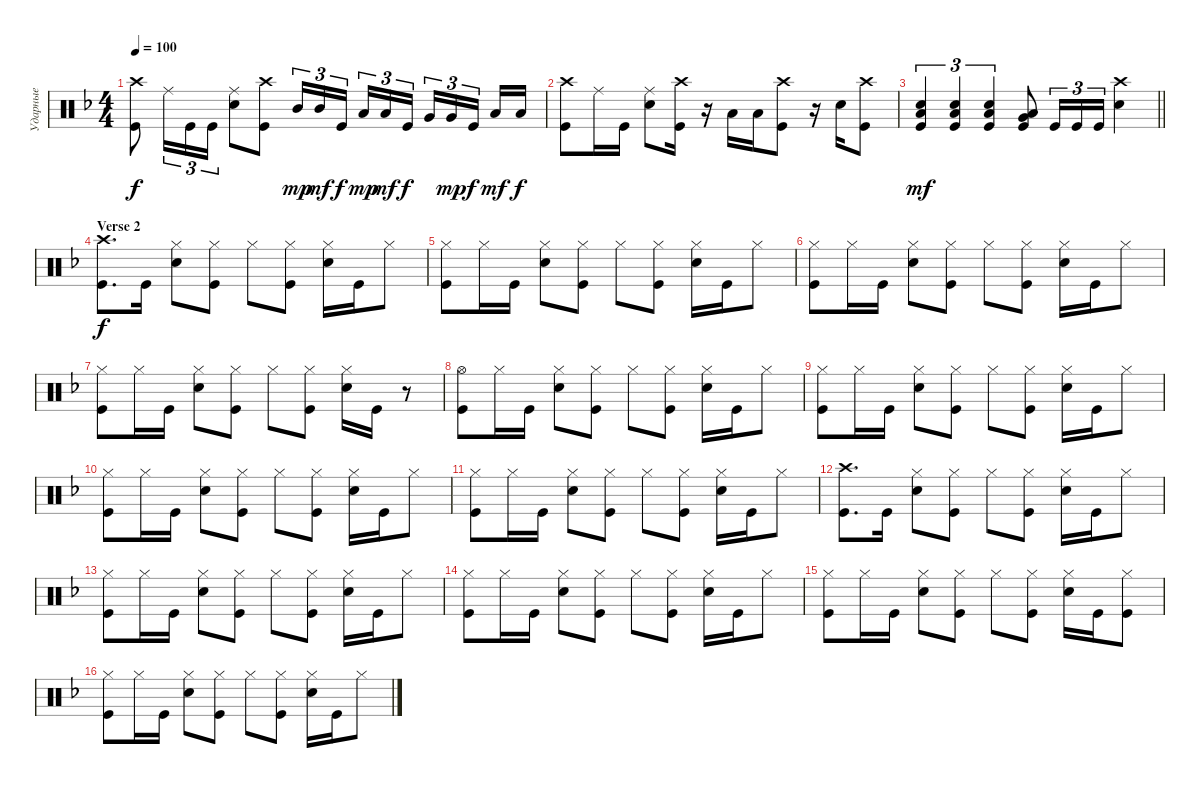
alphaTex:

\track ("Ударные" "Ударные") {instrument percussion}
\staff {score}
\articulation defaults
\ts (4 4)
\tempo 100
\clef neutral
\ks dminor
("Kick (hit)" "Crash high (hit)").8{dy f} "Ride (middle)".16{tu (3 2)} "Kick (hit)".16{tu (3 2)} "Kick (hit)".16{tu (3 2)} ("Snare (hit) 2" "Ride (middle)").8 ("Kick (hit)" "Crash high (hit)").8 "Mid Tom (hit)".16{tu (3 2) dy mp} "Mid Tom (hit)".16{tu (3 2) dy mf} "Kick (hit)".16{tu (3 2) dy f beam splitsecondary} "Low Tom (hit)".16{tu (3 2) dy mp} "Low Tom (hit)".16{tu (3 2) dy mf} "Kick (hit)".16{tu (3 2) dy f} "Very Low Tom (hit)".16{tu (3 2)} "Very Low Tom (hit)".16{tu (3 2) dy mp} "Kick (hit)".16{tu (3 2) dy f beam splitsecondary} "Low Floor Tom (hit)".16{dy mf} "Low Floor Tom (hit)".16{dy f} |
("Kick (hit)" "Crash high (hit)").8 "Ride (middle)".16 "Kick (hit)".16 ("Snare (hit) 2" "Ride (middle)").8 ("Kick (hit)" "Crash high (hit)").16 r.16 "Low Tom (hit)".16 "Low Tom (hit)".16 ("Kick (hit)" "Crash high (hit)").8 r.16 "Snare (hit) 2".16 ("Kick (hit)" "Crash high (hit)").8 |
\barLineRight lightlight
("Kick (hit)" "Snare (hit) 2" "Low Tom (hit)").4{tu (3 2) bd 120 dy mf} ("Kick (hit)" "Low Tom (hit)" "Snare (hit) 2").4{tu (3 2) bd 60} ("Kick (hit)" "Low Tom (hit)" "Snare (hit) 2").4{tu (3 2) bd 120} ("Kick (hit)" "Low Tom (hit)" "Very Low Tom (hit)").8{bd 60} "Kick (hit)".16{tu (3 2)} "Kick (hit)".16{tu (3 2)} "Kick (hit)".16{tu (3 2)} ("Snare (hit) 2" "Crash high (hit)").4 |
\section ("" "Verse 2")
("Kick (hit)" "Crash high (hit)").8{d dy f} "Kick (hit)".16 ("Snare (hit) 2" "Hi-Hat (closed)").8 ("Kick (hit)" "Hi-Hat (closed)").8 "Hi-Hat (closed)".8 ("Hi-Hat (closed)" "Kick (hit)").8 ("Snare (hit) 2" "Hi-Hat (closed)").16 "Kick (hit)".16 "Hi-Hat (closed)".8 |
("Kick (hit)" "Hi-Hat (closed)").8 "Hi-Hat (closed)".16 "Kick (hit)".16 ("Snare (hit) 2" "Hi-Hat (closed)").8 ("Kick (hit)" "Hi-Hat (closed)").8 "Hi-Hat (closed)".8 ("Hi-Hat (closed)" "Kick (hit)").8 ("Snare (hit) 2" "Hi-Hat (closed)").16 "Kick (hit)".16 "Hi-Hat (closed)".8 |
("Kick (hit)" "Hi-Hat (closed)").8 "Hi-Hat (closed)".16 "Kick (hit)".16 ("Snare (hit) 2" "Hi-Hat (closed)").8 ("Kick (hit)" "Hi-Hat (closed)").8 "Hi-Hat (closed)".8 ("Hi-Hat (closed)" "Kick (hit)").8 ("Snare (hit) 2" "Hi-Hat (closed)").16 "Kick (hit)".16 "Hi-Hat (closed)".8 |
("Kick (hit)" "Hi-Hat (closed)").8 "Hi-Hat (closed)".16 "Kick (hit)".16 ("Snare (hit) 2" "Hi-Hat (closed)").8 ("Kick (hit)" "Hi-Hat (closed)").8 "Hi-Hat (closed)".8 ("Hi-Hat (closed)" "Kick (hit)").8 ("Snare (hit) 2" "Hi-Hat (closed)").16 "Kick (hit)".16 r.8 |
("Kick (hit)" "Hi-Hat (open)").8 "Hi-Hat (closed)".16 "Kick (hit)".16 ("Snare (hit) 2" "Hi-Hat (closed)").8 ("Kick (hit)" "Hi-Hat (closed)").8 "Hi-Hat (closed)".8 ("Hi-Hat (closed)" "Kick (hit)").8 ("Snare (hit) 2" "Hi-Hat (closed)").16 "Kick (hit)".16 "Hi-Hat (closed)".8 |
("Kick (hit)" "Hi-Hat (closed)").8 "Hi-Hat (closed)".16 "Kick (hit)".16 ("Snare (hit) 2" "Hi-Hat (closed)").8 ("Kick (hit)" "Hi-Hat (closed)").8 "Hi-Hat (closed)".8 ("Hi-Hat (closed)" "Kick (hit)").8 ("Snare (hit) 2" "Hi-Hat (closed)").16 "Kick (hit)".16 "Hi-Hat (closed)".8 |
("Kick (hit)" "Hi-Hat (closed)").8 "Hi-Hat (closed)".16 "Kick (hit)".16 ("Snare (hit) 2" "Hi-Hat (closed)").8 ("Kick (hit)" "Hi-Hat (closed)").8 "Hi-Hat (closed)".8 ("Hi-Hat (closed)" "Kick (hit)").8 ("Snare (hit) 2" "Hi-Hat (closed)").16 "Kick (hit)".16 "Hi-Hat (closed)".8 |
("Kick (hit)" "Hi-Hat (closed)").8 "Hi-Hat (closed)".16 "Kick (hit)".16 ("Snare (hit) 2" "Hi-Hat (closed)").8 ("Kick (hit)" "Hi-Hat (closed)").8 "Hi-Hat (closed)".8 ("Hi-Hat (closed)" "Kick (hit)").8 ("Snare (hit) 2" "Hi-Hat (closed)").16 "Kick (hit)".16 "Hi-Hat (closed)".8 |
("Kick (hit)" "Crash high (hit)").8{d} "Kick (hit)".16 ("Snare (hit) 2" "Hi-Hat (closed)").8 ("Kick (hit)" "Hi-Hat (closed)").8 "Hi-Hat (closed)".8 ("Hi-Hat (closed)" "Kick (hit)").8 ("Snare (hit) 2" "Hi-Hat (closed)").16 "Kick (hit)".16 "Hi-Hat (closed)".8 |
("Kick (hit)" "Hi-Hat (closed)").8 "Hi-Hat (closed)".16 "Kick (hit)".16 ("Snare (hit) 2" "Hi-Hat (closed)").8 ("Kick (hit)" "Hi-Hat (closed)").8 "Hi-Hat (closed)".8 ("Hi-Hat (closed)" "Kick (hit)").8 ("Snare (hit) 2" "Hi-Hat (closed)").16 "Kick (hit)".16 "Hi-Hat (closed)".8 |
("Kick (hit)" "Hi-Hat (closed)").8 "Hi-Hat (closed)".16 "Kick (hit)".16 ("Snare (hit) 2" "Hi-Hat (closed)").8 ("Kick (hit)" "Hi-Hat (closed)").8 "Hi-Hat (closed)".8 ("Hi-Hat (closed)" "Kick (hit)").8 ("Snare (hit) 2" "Hi-Hat (closed)").16 "Kick (hit)".16 "Hi-Hat (closed)".8 |
("Kick (hit)" "Hi-Hat (closed)").8 "Hi-Hat (closed)".16 "Kick (hit)".16 ("Snare (hit) 2" "Hi-Hat (closed)").8 ("Kick (hit)" "Hi-Hat (closed)").8 "Hi-Hat (closed)".8 ("Hi-Hat (closed)" "Kick (hit)").8 ("Snare (hit) 2" "Hi-Hat (closed)").16 "Kick (hit)".16 ("Hi-Hat (closed)" "Kick (hit)").8 |
("Kick (hit)" "Hi-Hat (closed)").8 "Hi-Hat (closed)".16 "Kick (hit)".16 ("Snare (hit) 2" "Hi-Hat (closed)").8 ("Kick (hit)" "Hi-Hat (closed)").8 "Hi-Hat (closed)".8 ("Hi-Hat (closed)" "Kick (hit)").8 ("Snare (hit) 2" "Hi-Hat (closed)").16 "Kick (hit)".16 "Hi-Hat (closed)".8
